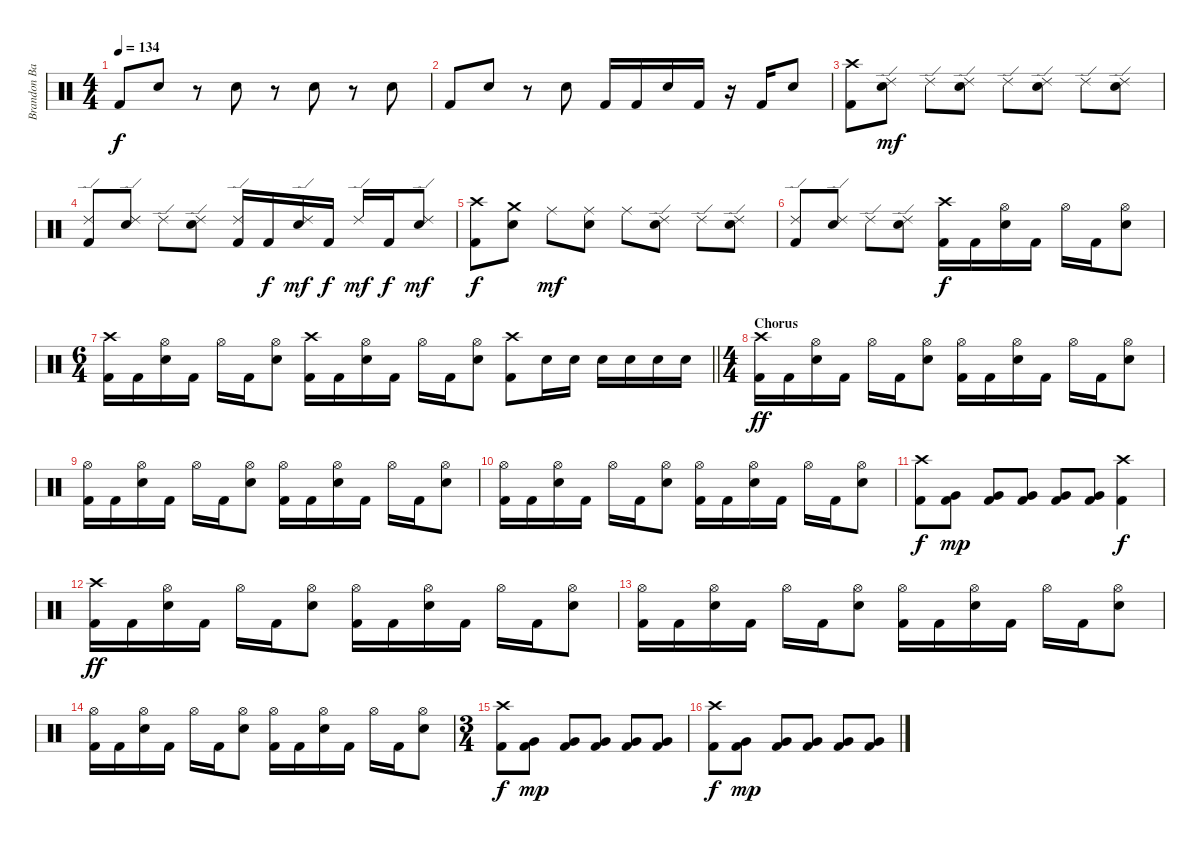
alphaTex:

\track ("Brandon Barnes - Drums" "Brandon Ba") {instrument percussion}
\staff {score}
\articulation defaults
\ts (4 4)
\tempo 134
\clef neutral
\ks c "Kick (hit) 2".8{dy f} "Snare (hit) 2".8
r.8 "Snare (hit) 2".8 r.8 "Snare (hit) 2".8 r.8 "Snare (hit) 2".8 |
"Kick (hit) 2".8 "Snare (hit) 2".8 r.8 "Snare (hit) 2".8 "Kick (hit) 2".16 "Kick (hit) 2".16 "Snare (hit) 2".16 "Kick (hit) 2".16 r.16 "Kick (hit) 2".16 "Snare (hit) 2".8 |
("Kick (hit) 2" "Crash high (hit)").8 ("Snare (hit) 2" "Ride (edge) 2").8{dy mf} "Ride (edge) 2".8 ("Snare (hit) 2" "Ride (edge) 2").8 "Ride (edge) 2".8 ("Snare (hit) 2" "Ride (edge) 2").8 "Ride (edge) 2".8 ("Snare (hit) 2" "Ride (edge) 2").8 |
("Kick (hit) 2" "Ride (edge) 2").8 ("Snare (hit) 2" "Ride (edge) 2").8 "Ride (edge) 2".8 ("Snare (hit) 2" "Ride (edge) 2").8 ("Kick (hit) 2" "Ride (edge) 2").16 "Kick (hit) 2".16{dy f} ("Snare (hit) 2" "Ride (edge) 2").16{dy mf} "Kick (hit) 2".16{dy f} "Ride (edge) 2".16{dy mf} "Kick (hit) 2".16{dy f} ("Snare (hit) 2" "Ride (edge) 2").8{dy mf} |
("Kick (hit) 2" "Crash high (hit)").8{dy f} ("Snare (hit) 2" "Crash medium (hit)").8 "Ride (middle)".8{dy mf} ("Snare (hit) 2" "Ride (middle)").8 "Ride (middle)".8 ("Snare (hit) 2" "Ride (edge) 2").8 "Ride (edge) 2".8 ("Snare (hit) 2" "Ride (edge) 2").8 |
("Kick (hit) 2" "Ride (edge) 2").8 ("Snare (hit) 2" "Ride (edge) 2").8 "Ride (edge) 2".8 ("Snare (hit) 2" "Ride (edge) 2").8 ("Kick (hit) 2" "Crash high (hit)").16{dy f} "Kick (hit) 2".16 ("Snare (hit) 2" "Hi-Hat (open)").16 "Kick (hit) 2".16 "Hi-Hat (open)".16 "Kick (hit) 2".16 ("Snare (hit) 2" "Hi-Hat (open)").8 |
\ts (6 4)
\barLineRight lightlight
("Kick (hit) 2" "Crash high (hit)").16 "Kick (hit) 2".16 ("Snare (hit) 2" "Hi-Hat (open)").16 "Kick (hit) 2".16 "Hi-Hat (open)".16 "Kick (hit) 2".16 ("Snare (hit) 2" "Hi-Hat (open)").8 ("Kick (hit) 2" "Crash high (hit)").16 "Kick (hit) 2".16 ("Snare (hit) 2" "Hi-Hat (open)").16 "Kick (hit) 2".16 "Hi-Hat (open)".16 "Kick (hit) 2".16 ("Snare (hit) 2" "Hi-Hat (open)").8 ("Kick (hit) 2" "Crash high (hit)").8 "Snare (hit) 2".16 "Snare (hit) 2".16 "Snare (hit) 2".16 "Snare (hit) 2".16 "Snare (hit) 2".16 "Snare (hit) 2".16 |
\ts (4 4)
\section ("" "Chorus")
("Crash high (hit)" "Kick (hit) 2").16{dy ff} "Kick (hit) 2".16 ("Snare (hit) 2" "Hi-Hat (open)").16 "Kick (hit) 2".16 "Hi-Hat (open)".16 "Kick (hit) 2".16 ("Snare (hit) 2" "Hi-Hat (open)").8 ("Hi-Hat (open)" "Kick (hit) 2").16 "Kick (hit) 2".16 ("Snare (hit) 2" "Hi-Hat (open)").16 "Kick (hit) 2".16 "Hi-Hat (open)".16 "Kick (hit) 2".16 ("Snare (hit) 2" "Hi-Hat (open)").8 |
("Hi-Hat (open)" "Kick (hit) 2").16 "Kick (hit) 2".16 ("Snare (hit) 2" "Hi-Hat (open)").16 "Kick (hit) 2".16 "Hi-Hat (open)".16 "Kick (hit) 2".16 ("Snare (hit) 2" "Hi-Hat (open)").8 ("Hi-Hat (open)" "Kick (hit) 2").16 "Kick (hit) 2".16 ("Snare (hit) 2" "Hi-Hat (open)").16 "Kick (hit) 2".16 "Hi-Hat (open)".16 "Kick (hit) 2".16 ("Snare (hit) 2" "Hi-Hat (open)").8 |
("Hi-Hat (open)" "Kick (hit) 2").16 "Kick (hit) 2".16 ("Snare (hit) 2" "Hi-Hat (open)").16 "Kick (hit) 2".16 "Hi-Hat (open)".16 "Kick (hit) 2".16 ("Snare (hit) 2" "Hi-Hat (open)").8 ("Hi-Hat (open)" "Kick (hit) 2").16 "Kick (hit) 2".16 ("Snare (hit) 2" "Hi-Hat (open)").16 "Kick (hit) 2".16 "Hi-Hat (open)".16 "Kick (hit) 2".16 ("Snare (hit) 2" "Hi-Hat (open)").8 |
("Kick (hit) 2" "Crash high (hit)").8{dy f} ("Very Low Tom (hit)" "Kick (hit) 2").8{dy mp} ("Very Low Tom (hit)" "Kick (hit) 2").8 ("Very Low Tom (hit)" "Kick (hit) 2").8 ("Very Low Tom (hit)" "Kick (hit) 2").8 ("Very Low Tom (hit)" "Kick (hit) 2").8 ("Kick (hit) 2" "Crash high (hit)").4{dy f} |
("Crash high (hit)" "Kick (hit) 2").16{dy ff} "Kick (hit) 2".16 ("Snare (hit) 2" "Hi-Hat (open)").16 "Kick (hit) 2".16 "Hi-Hat (open)".16 "Kick (hit) 2".16 ("Snare (hit) 2" "Hi-Hat (open)").8 ("Hi-Hat (open)" "Kick (hit) 2").16 "Kick (hit) 2".16 ("Snare (hit) 2" "Hi-Hat (open)").16 "Kick (hit) 2".16 "Hi-Hat (open)".16 "Kick (hit) 2".16 ("Snare (hit) 2" "Hi-Hat (open)").8 |
("Hi-Hat (open)" "Kick (hit) 2").16 "Kick (hit) 2".16 ("Snare (hit) 2" "Hi-Hat (open)").16 "Kick (hit) 2".16 "Hi-Hat (open)".16 "Kick (hit) 2".16 ("Snare (hit) 2" "Hi-Hat (open)").8 ("Hi-Hat (open)" "Kick (hit) 2").16 "Kick (hit) 2".16 ("Snare (hit) 2" "Hi-Hat (open)").16 "Kick (hit) 2".16 "Hi-Hat (open)".16 "Kick (hit) 2".16 ("Snare (hit) 2" "Hi-Hat (open)").8 |
("Hi-Hat (open)" "Kick (hit) 2").16 "Kick (hit) 2".16 ("Snare (hit) 2" "Hi-Hat (open)").16 "Kick (hit) 2".16 "Hi-Hat (open)".16 "Kick (hit) 2".16 ("Snare (hit) 2" "Hi-Hat (open)").8 ("Hi-Hat (open)" "Kick (hit) 2").16 "Kick (hit) 2".16 ("Snare (hit) 2" "Hi-Hat (open)").16 "Kick (hit) 2".16 "Hi-Hat (open)".16 "Kick (hit) 2".16 ("Snare (hit) 2" "Hi-Hat (open)").8 |
\ts (3 4)
("Kick (hit) 2" "Crash high (hit)").8{dy f} ("Very Low Tom (hit)" "Kick (hit) 2").8{dy mp} ("Very Low Tom (hit)" "Kick (hit) 2").8 ("Very Low Tom (hit)" "Kick (hit) 2").8 ("Very Low Tom (hit)" "Kick (hit) 2").8 ("Very Low Tom (hit)" "Kick (hit) 2").8 |
("Kick (hit) 2" "Crash high (hit)").8{dy f} ("Very Low Tom (hit)" "Kick (hit) 2").8{dy mp} ("Very Low Tom (hit)" "Kick (hit) 2").8 ("Very Low Tom (hit)" "Kick (hit) 2").8 ("Very Low Tom (hit)" "Kick (hit) 2").8 ("Very Low Tom (hit)" "Kick (hit) 2").8
